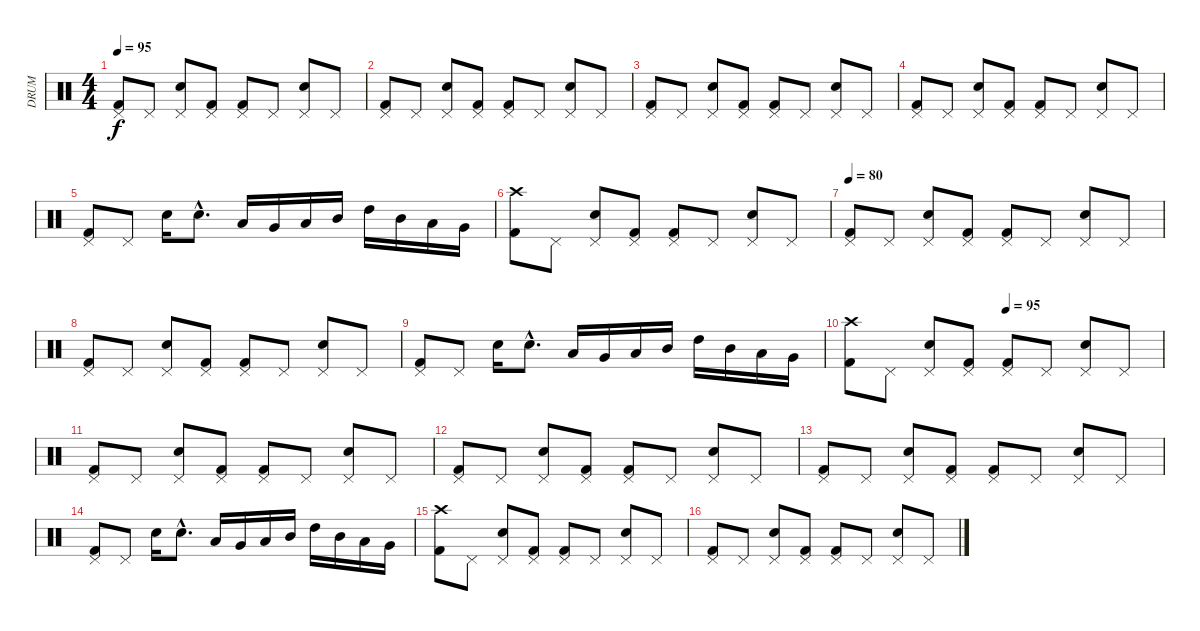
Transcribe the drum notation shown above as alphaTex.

\track ("DRUM" "DRUM") {instrument percussion}
\staff {score}
\articulation defaults
\ts (4 4)
\tempo 95
\clef neutral
\ks c
("Kick (hit) 2" "Pedal Hi-Hat (hit)").8{dy f} "Pedal Hi-Hat (hit)".8 ("Electric Snare (hit)" "Pedal Hi-Hat (hit)").8 ("Kick (hit) 2" "Pedal Hi-Hat (hit)").8 ("Kick (hit) 2" "Pedal Hi-Hat (hit)").8 "Pedal Hi-Hat (hit)".8 ("Electric Snare (hit)" "Pedal Hi-Hat (hit)").8 "Pedal Hi-Hat (hit)".8 |
("Kick (hit) 2" "Pedal Hi-Hat (hit)").8 "Pedal Hi-Hat (hit)".8 ("Electric Snare (hit)" "Pedal Hi-Hat (hit)").8 ("Kick (hit) 2" "Pedal Hi-Hat (hit)").8 ("Kick (hit) 2" "Pedal Hi-Hat (hit)").8 "Pedal Hi-Hat (hit)".8 ("Electric Snare (hit)" "Pedal Hi-Hat (hit)").8 "Pedal Hi-Hat (hit)".8 |
("Kick (hit) 2" "Pedal Hi-Hat (hit)").8 "Pedal Hi-Hat (hit)".8 ("Electric Snare (hit)" "Pedal Hi-Hat (hit)").8 ("Kick (hit) 2" "Pedal Hi-Hat (hit)").8 ("Kick (hit) 2" "Pedal Hi-Hat (hit)").8 "Pedal Hi-Hat (hit)".8 ("Electric Snare (hit)" "Pedal Hi-Hat (hit)").8 "Pedal Hi-Hat (hit)".8 |
("Kick (hit) 2" "Pedal Hi-Hat (hit)").8 "Pedal Hi-Hat (hit)".8 ("Electric Snare (hit)" "Pedal Hi-Hat (hit)").8 ("Kick (hit) 2" "Pedal Hi-Hat (hit)").8 ("Kick (hit) 2" "Pedal Hi-Hat (hit)").8 "Pedal Hi-Hat (hit)".8 ("Electric Snare (hit)" "Pedal Hi-Hat (hit)").8 "Pedal Hi-Hat (hit)".8 |
("Kick (hit) 2" "Pedal Hi-Hat (hit)").8 "Pedal Hi-Hat (hit)".8 "Electric Snare (hit)".16 "Electric Snare (hit)"{hac}.8{d} "Low Floor Tom (hit)".16 "Very Low Tom (hit)".16 "Low Tom (hit)".16 "Mid Tom (hit)".16 "High Tom (hit)".16 "Mid Tom (hit)".16 "Low Tom (hit)".16 "Very Low Tom (hit)".16 |
("Kick (hit) 2" "Crash high (hit)").8 "Pedal Hi-Hat (hit)".8 ("Electric Snare (hit)" "Pedal Hi-Hat (hit)").8 ("Kick (hit) 2" "Pedal Hi-Hat (hit)").8 ("Kick (hit) 2" "Pedal Hi-Hat (hit)").8 "Pedal Hi-Hat (hit)".8 ("Electric Snare (hit)" "Pedal Hi-Hat (hit)").8 "Pedal Hi-Hat (hit)".8 |
\tempo 80
("Kick (hit) 2" "Pedal Hi-Hat (hit)").8 "Pedal Hi-Hat (hit)".8 ("Electric Snare (hit)" "Pedal Hi-Hat (hit)").8 ("Kick (hit) 2" "Pedal Hi-Hat (hit)").8 ("Kick (hit) 2" "Pedal Hi-Hat (hit)").8 "Pedal Hi-Hat (hit)".8 ("Electric Snare (hit)" "Pedal Hi-Hat (hit)").8 "Pedal Hi-Hat (hit)".8 |
("Kick (hit) 2" "Pedal Hi-Hat (hit)").8 "Pedal Hi-Hat (hit)".8 ("Electric Snare (hit)" "Pedal Hi-Hat (hit)").8 ("Kick (hit) 2" "Pedal Hi-Hat (hit)").8 ("Kick (hit) 2" "Pedal Hi-Hat (hit)").8 "Pedal Hi-Hat (hit)".8 ("Electric Snare (hit)" "Pedal Hi-Hat (hit)").8 "Pedal Hi-Hat (hit)".8 |
("Kick (hit) 2" "Pedal Hi-Hat (hit)").8 "Pedal Hi-Hat (hit)".8 "Electric Snare (hit)".16 "Electric Snare (hit)"{hac}.8{d} "Low Floor Tom (hit)".16 "Very Low Tom (hit)".16 "Low Tom (hit)".16 "Mid Tom (hit)".16 "High Tom (hit)".16 "Mid Tom (hit)".16 "Low Tom (hit)".16 "Very Low Tom (hit)".16 |
\tempo (95 0.5)
("Kick (hit) 2" "Crash high (hit)").8 "Pedal Hi-Hat (hit)".8 ("Electric Snare (hit)" "Pedal Hi-Hat (hit)").8 ("Kick (hit) 2" "Pedal Hi-Hat (hit)").8 ("Kick (hit) 2" "Pedal Hi-Hat (hit)").8 "Pedal Hi-Hat (hit)".8 ("Electric Snare (hit)" "Pedal Hi-Hat (hit)").8 "Pedal Hi-Hat (hit)".8 |
("Kick (hit) 2" "Pedal Hi-Hat (hit)").8 "Pedal Hi-Hat (hit)".8 ("Electric Snare (hit)" "Pedal Hi-Hat (hit)").8 ("Kick (hit) 2" "Pedal Hi-Hat (hit)").8 ("Kick (hit) 2" "Pedal Hi-Hat (hit)").8 "Pedal Hi-Hat (hit)".8 ("Electric Snare (hit)" "Pedal Hi-Hat (hit)").8 "Pedal Hi-Hat (hit)".8 |
("Kick (hit) 2" "Pedal Hi-Hat (hit)").8 "Pedal Hi-Hat (hit)".8 ("Electric Snare (hit)" "Pedal Hi-Hat (hit)").8 ("Kick (hit) 2" "Pedal Hi-Hat (hit)").8 ("Kick (hit) 2" "Pedal Hi-Hat (hit)").8 "Pedal Hi-Hat (hit)".8 ("Electric Snare (hit)" "Pedal Hi-Hat (hit)").8 "Pedal Hi-Hat (hit)".8 |
("Kick (hit) 2" "Pedal Hi-Hat (hit)").8 "Pedal Hi-Hat (hit)".8 ("Electric Snare (hit)" "Pedal Hi-Hat (hit)").8 ("Kick (hit) 2" "Pedal Hi-Hat (hit)").8 ("Kick (hit) 2" "Pedal Hi-Hat (hit)").8 "Pedal Hi-Hat (hit)".8 ("Electric Snare (hit)" "Pedal Hi-Hat (hit)").8 "Pedal Hi-Hat (hit)".8 |
("Kick (hit) 2" "Pedal Hi-Hat (hit)").8 "Pedal Hi-Hat (hit)".8 "Electric Snare (hit)".16 "Electric Snare (hit)"{hac}.8{d} "Low Floor Tom (hit)".16 "Very Low Tom (hit)".16 "Low Tom (hit)".16 "Mid Tom (hit)".16 "High Tom (hit)".16 "Mid Tom (hit)".16 "Low Tom (hit)".16 "Very Low Tom (hit)".16 |
("Kick (hit) 2" "Crash high (hit)").8 "Pedal Hi-Hat (hit)".8 ("Electric Snare (hit)" "Pedal Hi-Hat (hit)").8 ("Kick (hit) 2" "Pedal Hi-Hat (hit)").8 ("Kick (hit) 2" "Pedal Hi-Hat (hit)").8 "Pedal Hi-Hat (hit)".8 ("Electric Snare (hit)" "Pedal Hi-Hat (hit)").8 "Pedal Hi-Hat (hit)".8 |
("Kick (hit) 2" "Pedal Hi-Hat (hit)").8 "Pedal Hi-Hat (hit)".8 ("Electric Snare (hit)" "Pedal Hi-Hat (hit)").8 ("Kick (hit) 2" "Pedal Hi-Hat (hit)").8 ("Kick (hit) 2" "Pedal Hi-Hat (hit)").8 "Pedal Hi-Hat (hit)".8 ("Electric Snare (hit)" "Pedal Hi-Hat (hit)").8 "Pedal Hi-Hat (hit)".8
